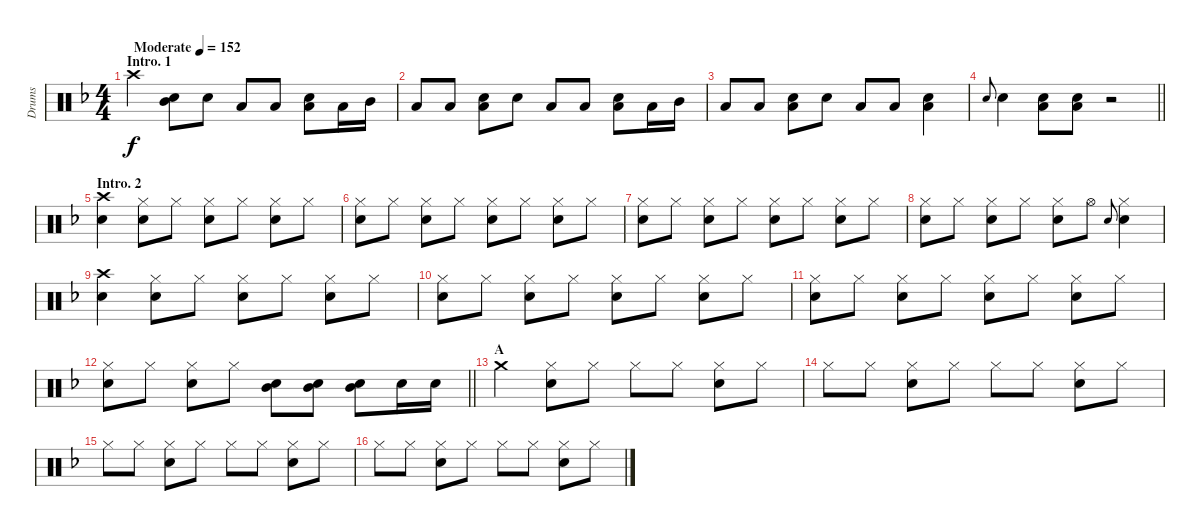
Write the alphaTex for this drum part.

\track ("Drums" "Drums") {instrument percussion}
\staff {score}
\articulation defaults
\ts (4 4)
\section ("" "Intro. 1")
\tempo (152 "Moderate")
\clef neutral
\ks f "Crash high (hit)".4{dy f}
("Snare (hit) 2" "Mid Tom (hit)").8 "Snare (hit) 2".8 "Low Tom (hit)".8 "Low Tom (hit)".8 ("Low Tom (hit)" "Snare (hit) 2").8 "Low Tom (hit)".16 "Mid Tom (hit)".16 |
"Low Tom (hit)".8 "Low Tom (hit)".8 ("Low Tom (hit)" "Snare (hit) 2").8 "Snare (hit) 2".8 "Low Tom (hit)".8 "Low Tom (hit)".8 ("Snare (hit) 2" "Low Tom (hit)").8 "Low Tom (hit)".16 "Mid Tom (hit)".16 |
"Low Tom (hit)".8 "Low Tom (hit)".8 ("Low Tom (hit)" "Snare (hit) 2").8 "Snare (hit) 2".8 "Low Tom (hit)".8 "Low Tom (hit)".8 ("Snare (hit) 2" "Low Tom (hit)").4 |
\barLineRight lightlight "Snare (hit) 2".8{gr onbeat} "Snare (hit) 2".4
("Snare (hit) 2" "Low Tom (hit)").8 ("Snare (hit) 2" "Low Tom (hit)").8 r.2 |
\section ("" "Intro. 2")
("Crash high (hit)" "Snare (hit) 2").4 ("Hi-Hat (closed)" "Snare (hit) 2").8 "Hi-Hat (closed)".8 ("Hi-Hat (closed)" "Snare (hit) 2").8 "Hi-Hat (closed)".8 ("Hi-Hat (closed)" "Snare (hit) 2").8 "Hi-Hat (closed)".8 |
("Hi-Hat (closed)" "Snare (hit) 2").8 "Hi-Hat (closed)".8 ("Hi-Hat (closed)" "Snare (hit) 2").8 "Hi-Hat (closed)".8 ("Hi-Hat (closed)" "Snare (hit) 2").8 "Hi-Hat (closed)".8 ("Hi-Hat (closed)" "Snare (hit) 2").8 "Hi-Hat (closed)".8 |
("Hi-Hat (closed)" "Snare (hit) 2").8 "Hi-Hat (closed)".8 ("Hi-Hat (closed)" "Snare (hit) 2").8 "Hi-Hat (closed)".8 ("Hi-Hat (closed)" "Snare (hit) 2").8 "Hi-Hat (closed)".8 ("Hi-Hat (closed)" "Snare (hit) 2").8 "Hi-Hat (closed)".8 |
("Hi-Hat (closed)" "Snare (hit) 2").8 "Hi-Hat (closed)".8 ("Hi-Hat (closed)" "Snare (hit) 2").8 "Hi-Hat (closed)".8 ("Hi-Hat (closed)" "Snare (hit) 2").8 "Hi-Hat (open)".8 "Snare (hit) 2".8{gr onbeat} ("Hi-Hat (closed)" "Snare (hit) 2").4 |
("Crash high (hit)" "Snare (hit) 2").4 ("Hi-Hat (closed)" "Snare (hit) 2").8 "Hi-Hat (closed)".8 ("Hi-Hat (closed)" "Snare (hit) 2").8 "Hi-Hat (closed)".8 ("Hi-Hat (closed)" "Snare (hit) 2").8 "Hi-Hat (closed)".8 |
("Hi-Hat (closed)" "Snare (hit) 2").8 "Hi-Hat (closed)".8 ("Hi-Hat (closed)" "Snare (hit) 2").8 "Hi-Hat (closed)".8 ("Hi-Hat (closed)" "Snare (hit) 2").8 "Hi-Hat (closed)".8 ("Hi-Hat (closed)" "Snare (hit) 2").8 "Hi-Hat (closed)".8 |
("Hi-Hat (closed)" "Snare (hit) 2").8 "Hi-Hat (closed)".8 ("Hi-Hat (closed)" "Snare (hit) 2").8 "Hi-Hat (closed)".8 ("Hi-Hat (closed)" "Snare (hit) 2").8 "Hi-Hat (closed)".8 ("Hi-Hat (closed)" "Snare (hit) 2").8 "Hi-Hat (closed)".8 |
\barLineRight lightlight
("Hi-Hat (closed)" "Snare (hit) 2").8 "Hi-Hat (closed)".8 ("Hi-Hat (closed)" "Snare (hit) 2").8 "Hi-Hat (closed)".8 ("Mid Tom (hit)" "Snare (hit) 2").8 ("Mid Tom (hit)" "Snare (hit) 2").8 ("Mid Tom (hit)" "Snare (hit) 2").8 "Snare (hit) 2".16 "Snare (hit) 2".16 |
\section ("" "A")
"Crash medium (hit)".4 ("Hi-Hat (closed)" "Snare (hit) 2").8 "Hi-Hat (closed)".8 "Hi-Hat (closed)".8 "Hi-Hat (closed)".8 ("Hi-Hat (closed)" "Snare (hit) 2").8 "Hi-Hat (closed)".8 |
"Hi-Hat (closed)".8 "Hi-Hat (closed)".8 ("Hi-Hat (closed)" "Snare (hit) 2").8 "Hi-Hat (closed)".8 "Hi-Hat (closed)".8 "Hi-Hat (closed)".8 ("Hi-Hat (closed)" "Snare (hit) 2").8 "Hi-Hat (closed)".8 |
"Hi-Hat (closed)".8 "Hi-Hat (closed)".8 ("Hi-Hat (closed)" "Snare (hit) 2").8 "Hi-Hat (closed)".8 "Hi-Hat (closed)".8 "Hi-Hat (closed)".8 ("Hi-Hat (closed)" "Snare (hit) 2").8 "Hi-Hat (closed)".8 |
"Hi-Hat (closed)".8 "Hi-Hat (closed)".8 ("Hi-Hat (closed)" "Snare (hit) 2").8 "Hi-Hat (closed)".8 "Hi-Hat (closed)".8 "Hi-Hat (closed)".8 ("Hi-Hat (closed)" "Snare (hit) 2").8 "Hi-Hat (closed)".8
